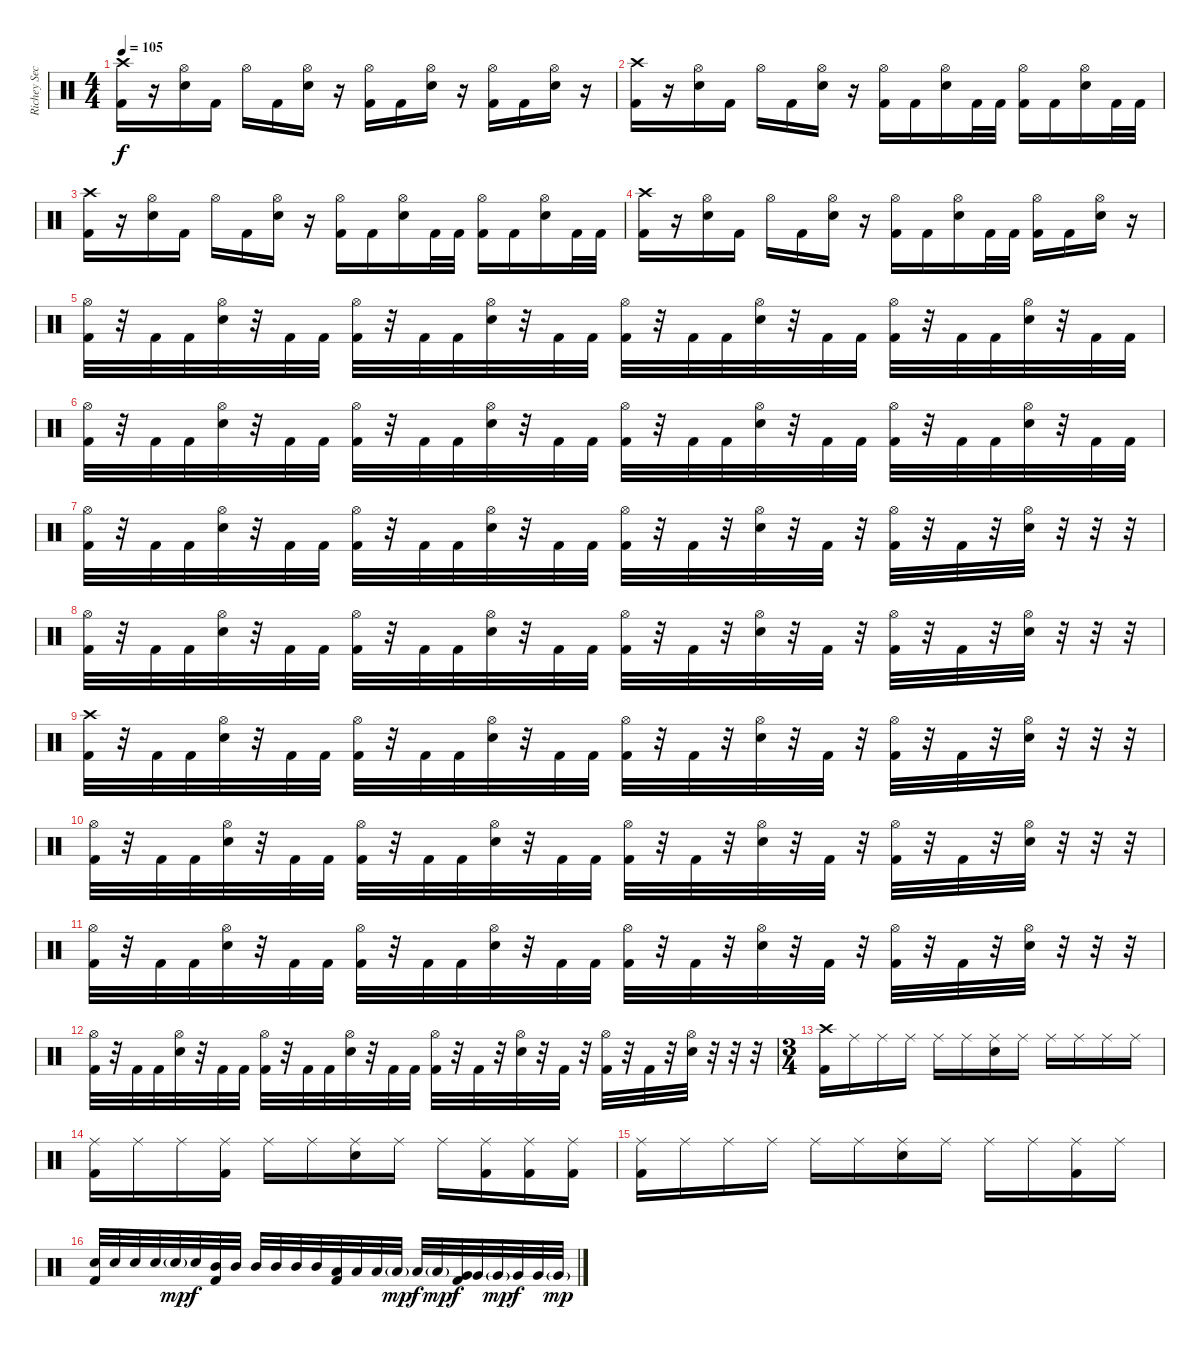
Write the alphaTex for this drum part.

\track ("Richey Secchiri" "Richey Sec") {instrument percussion}
\staff {score}
\articulation defaults
\ts (4 4)
\tempo 105
\clef neutral
\ks c
("Crash high (hit)" "Kick (hit) 2").16{dy f} r.16 ("Hi-Hat (open)" "Snare (hit) 2").16 "Kick (hit) 2".16 "Hi-Hat (open)".16 "Kick (hit) 2".16 ("Hi-Hat (open)" "Snare (hit) 2").16 r.16 ("Hi-Hat (open)" "Kick (hit) 2").16 "Kick (hit) 2".16 ("Hi-Hat (open)" "Snare (hit) 2").16 r.16 ("Hi-Hat (open)" "Kick (hit) 2").16 "Kick (hit) 2".16 ("Hi-Hat (open)" "Snare (hit) 2").16 r.16 |
("Crash high (hit)" "Kick (hit) 2").16 r.16 ("Hi-Hat (open)" "Snare (hit) 2").16 "Kick (hit) 2".16 "Hi-Hat (open)".16 "Kick (hit) 2".16 ("Hi-Hat (open)" "Snare (hit) 2").16 r.16 ("Hi-Hat (open)" "Kick (hit) 2").16 "Kick (hit) 2".16 ("Hi-Hat (open)" "Snare (hit) 2").16 "Kick (hit) 2".32 "Kick (hit) 2".32 ("Hi-Hat (open)" "Kick (hit) 2").16 "Kick (hit) 2".16 ("Hi-Hat (open)" "Snare (hit) 2").16 "Kick (hit) 2".32 "Kick (hit) 2".32 |
("Crash high (hit)" "Kick (hit) 2").16 r.16 ("Hi-Hat (open)" "Snare (hit) 2").16 "Kick (hit) 2".16 "Hi-Hat (open)".16 "Kick (hit) 2".16 ("Hi-Hat (open)" "Snare (hit) 2").16 r.16 ("Hi-Hat (open)" "Kick (hit) 2").16 "Kick (hit) 2".16 ("Hi-Hat (open)" "Snare (hit) 2").16 "Kick (hit) 2".32 "Kick (hit) 2".32 ("Hi-Hat (open)" "Kick (hit) 2").16 "Kick (hit) 2".16 ("Hi-Hat (open)" "Snare (hit) 2").16 "Kick (hit) 2".32 "Kick (hit) 2".32 |
("Crash high (hit)" "Kick (hit) 2").16 r.16 ("Hi-Hat (open)" "Snare (hit) 2").16 "Kick (hit) 2".16 "Hi-Hat (open)".16 "Kick (hit) 2".16 ("Hi-Hat (open)" "Snare (hit) 2").16 r.16 ("Hi-Hat (open)" "Kick (hit) 2").16 "Kick (hit) 2".16 ("Hi-Hat (open)" "Snare (hit) 2").16 "Kick (hit) 2".32 "Kick (hit) 2".32 ("Hi-Hat (open)" "Kick (hit) 2").16 "Kick (hit) 2".16 ("Hi-Hat (open)" "Snare (hit) 2").16 r.16 |
("Hi-Hat (open)" "Kick (hit) 2").32 r.32 "Kick (hit) 2".32 "Kick (hit) 2".32 ("Hi-Hat (open)" "Snare (hit) 2").32 r.32 "Kick (hit) 2".32 "Kick (hit) 2".32 ("Hi-Hat (open)" "Kick (hit) 2").32 r.32 "Kick (hit) 2".32 "Kick (hit) 2".32 ("Hi-Hat (open)" "Snare (hit) 2").32 r.32 "Kick (hit) 2".32 "Kick (hit) 2".32 ("Hi-Hat (open)" "Kick (hit) 2").32 r.32 "Kick (hit) 2".32 "Kick (hit) 2".32 ("Hi-Hat (open)" "Snare (hit) 2").32 r.32 "Kick (hit) 2".32 "Kick (hit) 2".32 ("Hi-Hat (open)" "Kick (hit) 2").32 r.32 "Kick (hit) 2".32 "Kick (hit) 2".32 ("Hi-Hat (open)" "Snare (hit) 2").32 r.32 "Kick (hit) 2".32 "Kick (hit) 2".32 |
("Hi-Hat (open)" "Kick (hit) 2").32 r.32 "Kick (hit) 2".32 "Kick (hit) 2".32 ("Hi-Hat (open)" "Snare (hit) 2").32 r.32 "Kick (hit) 2".32 "Kick (hit) 2".32 ("Hi-Hat (open)" "Kick (hit) 2").32 r.32 "Kick (hit) 2".32 "Kick (hit) 2".32 ("Hi-Hat (open)" "Snare (hit) 2").32 r.32 "Kick (hit) 2".32 "Kick (hit) 2".32 ("Hi-Hat (open)" "Kick (hit) 2").32 r.32 "Kick (hit) 2".32 "Kick (hit) 2".32 ("Hi-Hat (open)" "Snare (hit) 2").32 r.32 "Kick (hit) 2".32 "Kick (hit) 2".32 ("Hi-Hat (open)" "Kick (hit) 2").32 r.32 "Kick (hit) 2".32 "Kick (hit) 2".32 ("Hi-Hat (open)" "Snare (hit) 2").32 r.32 "Kick (hit) 2".32 "Kick (hit) 2".32 |
("Hi-Hat (open)" "Kick (hit) 2").32 r.32 "Kick (hit) 2".32 "Kick (hit) 2".32 ("Hi-Hat (open)" "Snare (hit) 2").32 r.32 "Kick (hit) 2".32 "Kick (hit) 2".32 ("Hi-Hat (open)" "Kick (hit) 2").32 r.32 "Kick (hit) 2".32 "Kick (hit) 2".32 ("Hi-Hat (open)" "Snare (hit) 2").32 r.32 "Kick (hit) 2".32 "Kick (hit) 2".32 ("Hi-Hat (open)" "Kick (hit) 2").32 r.32 "Kick (hit) 2".32 r.32 ("Hi-Hat (open)" "Snare (hit) 2").32 r.32 "Kick (hit) 2".32 r.32 ("Hi-Hat (open)" "Kick (hit) 2").32 r.32 "Kick (hit) 2".32 r.32 ("Hi-Hat (open)" "Snare (hit) 2").32 r.32 r.32 r.32 |
("Hi-Hat (open)" "Kick (hit) 2").32 r.32 "Kick (hit) 2".32 "Kick (hit) 2".32 ("Hi-Hat (open)" "Snare (hit) 2").32 r.32 "Kick (hit) 2".32 "Kick (hit) 2".32 ("Hi-Hat (open)" "Kick (hit) 2").32 r.32 "Kick (hit) 2".32 "Kick (hit) 2".32 ("Hi-Hat (open)" "Snare (hit) 2").32 r.32 "Kick (hit) 2".32 "Kick (hit) 2".32 ("Hi-Hat (open)" "Kick (hit) 2").32 r.32 "Kick (hit) 2".32 r.32 ("Hi-Hat (open)" "Snare (hit) 2").32 r.32 "Kick (hit) 2".32 r.32 ("Hi-Hat (open)" "Kick (hit) 2").32 r.32 "Kick (hit) 2".32 r.32 ("Hi-Hat (open)" "Snare (hit) 2").32 r.32 r.32 r.32 |
("Crash high (hit)" "Kick (hit) 2").32 r.32 "Kick (hit) 2".32 "Kick (hit) 2".32 ("Hi-Hat (open)" "Snare (hit) 2").32 r.32 "Kick (hit) 2".32 "Kick (hit) 2".32 ("Hi-Hat (open)" "Kick (hit) 2").32 r.32 "Kick (hit) 2".32 "Kick (hit) 2".32 ("Hi-Hat (open)" "Snare (hit) 2").32 r.32 "Kick (hit) 2".32 "Kick (hit) 2".32 ("Hi-Hat (open)" "Kick (hit) 2").32 r.32 "Kick (hit) 2".32 r.32 ("Hi-Hat (open)" "Snare (hit) 2").32 r.32 "Kick (hit) 2".32 r.32 ("Hi-Hat (open)" "Kick (hit) 2").32 r.32 "Kick (hit) 2".32 r.32 ("Hi-Hat (open)" "Snare (hit) 2").32 r.32 r.32 r.32 |
("Hi-Hat (open)" "Kick (hit) 2").32 r.32 "Kick (hit) 2".32 "Kick (hit) 2".32 ("Hi-Hat (open)" "Snare (hit) 2").32 r.32 "Kick (hit) 2".32 "Kick (hit) 2".32 ("Hi-Hat (open)" "Kick (hit) 2").32 r.32 "Kick (hit) 2".32 "Kick (hit) 2".32 ("Hi-Hat (open)" "Snare (hit) 2").32 r.32 "Kick (hit) 2".32 "Kick (hit) 2".32 ("Hi-Hat (open)" "Kick (hit) 2").32 r.32 "Kick (hit) 2".32 r.32 ("Hi-Hat (open)" "Snare (hit) 2").32 r.32 "Kick (hit) 2".32 r.32 ("Hi-Hat (open)" "Kick (hit) 2").32 r.32 "Kick (hit) 2".32 r.32 ("Hi-Hat (open)" "Snare (hit) 2").32 r.32 r.32 r.32 |
("Hi-Hat (open)" "Kick (hit) 2").32 r.32 "Kick (hit) 2".32 "Kick (hit) 2".32 ("Hi-Hat (open)" "Snare (hit) 2").32 r.32 "Kick (hit) 2".32 "Kick (hit) 2".32 ("Hi-Hat (open)" "Kick (hit) 2").32 r.32 "Kick (hit) 2".32 "Kick (hit) 2".32 ("Hi-Hat (open)" "Snare (hit) 2").32 r.32 "Kick (hit) 2".32 "Kick (hit) 2".32 ("Hi-Hat (open)" "Kick (hit) 2").32 r.32 "Kick (hit) 2".32 r.32 ("Hi-Hat (open)" "Snare (hit) 2").32 r.32 "Kick (hit) 2".32 r.32 ("Hi-Hat (open)" "Kick (hit) 2").32 r.32 "Kick (hit) 2".32 r.32 ("Hi-Hat (open)" "Snare (hit) 2").32 r.32 r.32 r.32 |
("Hi-Hat (open)" "Kick (hit) 2").32 r.32 "Kick (hit) 2".32 "Kick (hit) 2".32 ("Hi-Hat (open)" "Snare (hit) 2").32 r.32 "Kick (hit) 2".32 "Kick (hit) 2".32 ("Hi-Hat (open)" "Kick (hit) 2").32 r.32 "Kick (hit) 2".32 "Kick (hit) 2".32 ("Hi-Hat (open)" "Snare (hit) 2").32 r.32 "Kick (hit) 2".32 "Kick (hit) 2".32 ("Hi-Hat (open)" "Kick (hit) 2").32 r.32 "Kick (hit) 2".32 r.32 ("Hi-Hat (open)" "Snare (hit) 2").32 r.32 "Kick (hit) 2".32 r.32 ("Hi-Hat (open)" "Kick (hit) 2").32 r.32 "Kick (hit) 2".32 r.32 ("Hi-Hat (open)" "Snare (hit) 2").32 r.32 r.32 r.32 |
\ts (3 4)
("Crash high (hit)" "Kick (hit) 2").16 "Ride (middle)".16 "Ride (middle)".16 "Ride (middle)".16 "Ride (middle)".16 "Ride (middle)".16 ("Ride (middle)" "Snare (hit) 2").16 "Ride (middle)".16 "Ride (middle)".16 "Ride (middle)".16 "Ride (middle)".16 "Ride (middle)".16 |
("Ride (middle)" "Kick (hit) 2").16 "Ride (middle)".16 "Ride (middle)".16 ("Ride (middle)" "Kick (hit) 2").16 "Ride (middle)".16 "Ride (middle)".16 ("Ride (middle)" "Snare (hit) 2").16 "Ride (middle)".16 "Ride (middle)".16 ("Ride (middle)" "Kick (hit) 2").16 ("Ride (middle)" "Kick (hit) 2").16 ("Ride (middle)" "Kick (hit) 2").16 |
("Ride (middle)" "Kick (hit) 2").16 "Ride (middle)".16 "Ride (middle)".16 "Ride (middle)".16 "Ride (middle)".16 "Ride (middle)".16 ("Ride (middle)" "Snare (hit) 2").16 "Ride (middle)".16 "Ride (middle)".16 "Ride (middle)".16 ("Ride (middle)" "Kick (hit) 2").16 "Ride (middle)".16 |
("Snare (hit) 2" "Kick (hit) 2").32 "Snare (hit) 2".32 "Snare (hit) 2".32 "Snare (hit) 2".32 "Snare (hit) 2"{g}.32{dy mp} "Snare (hit) 2".32{dy f} ("Mid Tom (hit)" "Kick (hit) 2").32 "Mid Tom (hit)".32 "Mid Tom (hit)".32 "Mid Tom (hit)".32 "Mid Tom (hit)".32 "Mid Tom (hit)".32 ("Low Tom (hit)" "Kick (hit) 2").32 "Low Tom (hit)".32 "Low Tom (hit)".32 "Low Tom (hit)"{g}.32{dy mp} "Low Tom (hit)".32{dy f} "Low Tom (hit)"{g}.32{dy mp} ("Very Low Tom (hit)" "Kick (hit) 2").32{dy f} "Very Low Tom (hit)".32 "Very Low Tom (hit)"{g}.32{dy mp} "Very Low Tom (hit)".32{dy f} "Very Low Tom (hit)".32 "Very Low Tom (hit)"{g}.32{dy mp}
